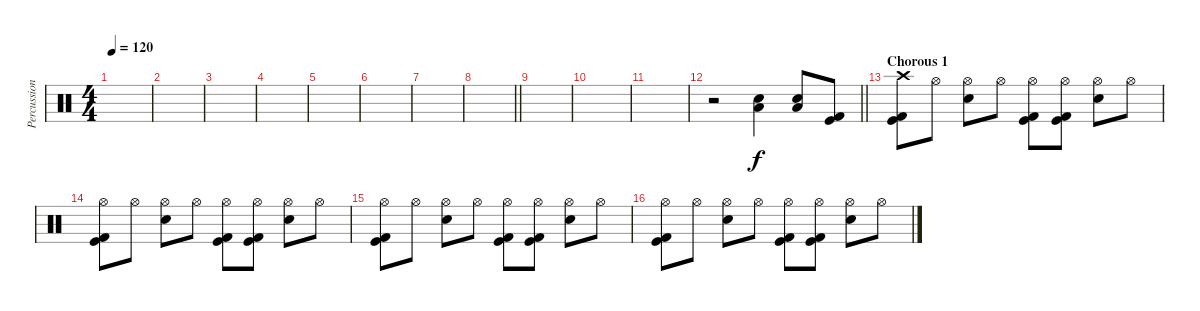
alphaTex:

\track ("Percussion" "Percussion") {instrument percussion}
\staff {score}
\articulation defaults
\ts (4 4)
\section ("" "")
\tempo 120
\clef neutral
\ks c
|
|
|
|
|
|
|
\barLineRight lightlight
|
\section ("" "")
|
|
|
\barLineRight lightlight
r.2 ("Electric Snare (hit)" "Low Floor Tom (hit)").4 ("Electric Snare (hit)" "Low Floor Tom (hit)").8 ("Kick (hit)" "Kick (hit) 2").8 |
\section ("" "Chorous 1")
("Crash high (hit)" "Kick (hit)" "Kick (hit) 2").8 "Hi-Hat (open)".8 ("Hi-Hat (open)" "Electric Snare (hit)").8 "Hi-Hat (open)".8 ("Hi-Hat (open)" "Kick (hit)" "Kick (hit) 2").8 ("Hi-Hat (open)" "Kick (hit)" "Kick (hit) 2").8 ("Hi-Hat (open)" "Electric Snare (hit)").8 "Hi-Hat (open)".8 |
("Hi-Hat (open)" "Kick (hit)" "Kick (hit) 2").8 "Hi-Hat (open)".8 ("Hi-Hat (open)" "Electric Snare (hit)").8 "Hi-Hat (open)".8 ("Hi-Hat (open)" "Kick (hit)" "Kick (hit) 2").8 ("Hi-Hat (open)" "Kick (hit)" "Kick (hit) 2").8 ("Hi-Hat (open)" "Electric Snare (hit)").8 "Hi-Hat (open)".8 |
("Hi-Hat (open)" "Kick (hit)" "Kick (hit) 2").8 "Hi-Hat (open)".8 ("Hi-Hat (open)" "Electric Snare (hit)").8 "Hi-Hat (open)".8 ("Hi-Hat (open)" "Kick (hit)" "Kick (hit) 2").8 ("Hi-Hat (open)" "Kick (hit)" "Kick (hit) 2").8 ("Hi-Hat (open)" "Electric Snare (hit)").8 "Hi-Hat (open)".8 |
("Hi-Hat (open)" "Kick (hit)" "Kick (hit) 2").8 "Hi-Hat (open)".8 ("Hi-Hat (open)" "Electric Snare (hit)").8 "Hi-Hat (open)".8 ("Hi-Hat (open)" "Kick (hit)" "Kick (hit) 2").8 ("Hi-Hat (open)" "Kick (hit)" "Kick (hit) 2").8 ("Hi-Hat (open)" "Electric Snare (hit)").8 "Hi-Hat (open)".8
